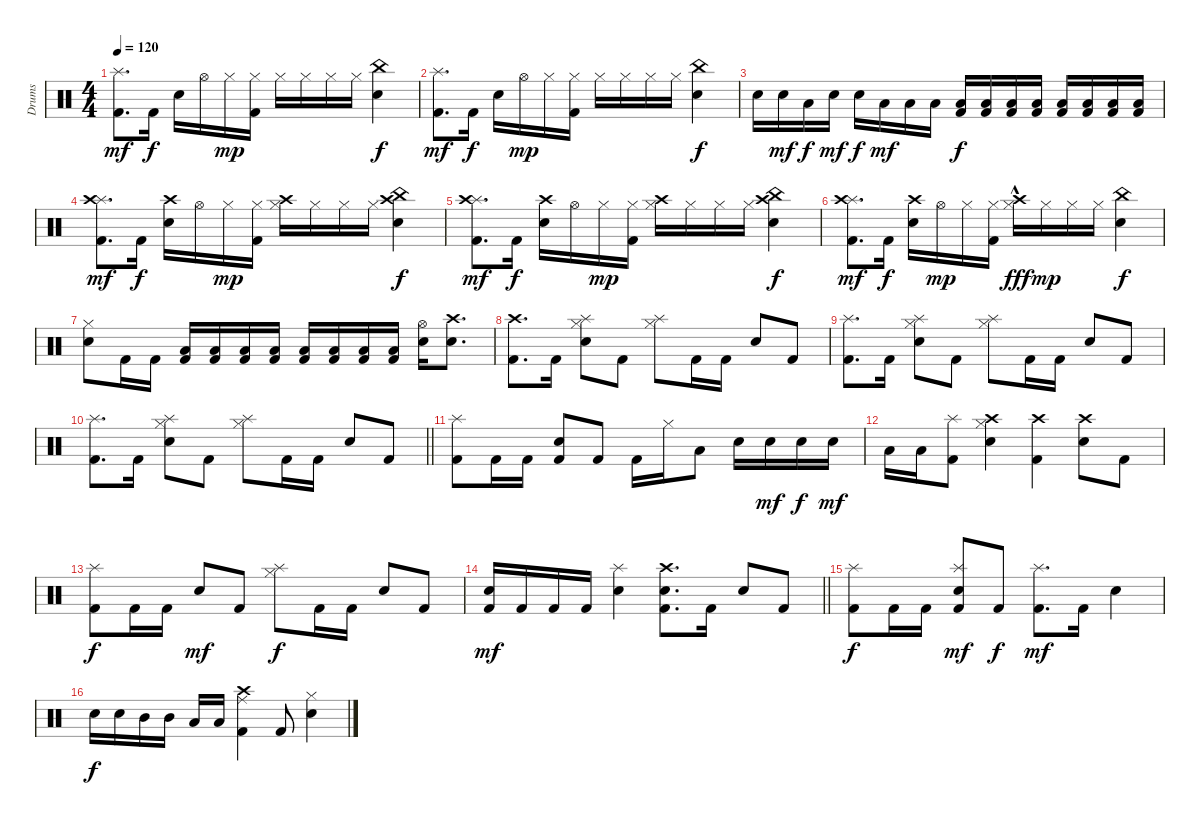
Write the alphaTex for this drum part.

\track ("Drums" "Drums") {instrument percussion}
\staff {score}
\articulation defaults
\ts (4 4)
\tempo 120
\clef neutral
\ks c
("Kick (hit) 2" "Splash (hit)").8{d dy mf} "Kick (hit) 2".16{dy f} "Snare (hit) 2".16 "Hi-Hat (open)".16 "Hi-Hat (closed)".16{dy mp} ("Kick (hit) 2" "Hi-Hat (closed)").16 "Hi-Hat (closed)".16 "Hi-Hat (closed)".16 "Hi-Hat (closed)".16 "Hi-Hat (closed)".16 ("Snare (hit) 2" "China (hit)").4{dy f} |
("Kick (hit) 2" "Splash (hit)").8{d dy mf} "Kick (hit) 2".16{dy f} "Snare (hit) 2".16 "Hi-Hat (open)".16{dy mp} "Hi-Hat (closed)".16 ("Kick (hit) 2" "Hi-Hat (closed)").16 "Hi-Hat (closed)".16 "Hi-Hat (closed)".16 "Hi-Hat (closed)".16 "Hi-Hat (closed)".16 ("Snare (hit) 2" "China (hit)").4{dy f} |
"Snare (hit) 2".16 "Snare (hit) 2".16{dy mf} "Low Tom (hit)".16{dy f} "Snare (hit) 2".16{dy mf} "Snare (hit) 2".16{dy f} "Low Tom (hit)".16{dy mf} "Low Tom (hit)".16 "Low Tom (hit)".16 ("Kick (hit) 2" "Low Tom (hit)").16{dy f} ("Kick (hit) 2" "Low Tom (hit)").16 ("Kick (hit) 2" "Low Tom (hit)").16 ("Kick (hit) 2" "Low Tom (hit)").16 ("Kick (hit) 2" "Low Tom (hit)").16 ("Kick (hit) 2" "Low Tom (hit)").16 ("Kick (hit) 2" "Low Tom (hit)").16 ("Kick (hit) 2" "Low Tom (hit)").16 |
("Kick (hit) 2" "Splash (hit)" "Crash high (hit)").8{d dy mf} "Kick (hit) 2".16{dy f} ("Snare (hit) 2" "Crash high (hit)").16 "Hi-Hat (open)".16 "Hi-Hat (closed)".16{dy mp} ("Kick (hit) 2" "Hi-Hat (closed)").16 ("Hi-Hat (closed)" "Crash high (hit)").16 "Hi-Hat (closed)".16 "Hi-Hat (closed)".16 "Hi-Hat (closed)".16 ("Snare (hit) 2" "China (hit)" "Crash high (hit)").4{dy f} |
("Kick (hit) 2" "Splash (hit)" "Crash high (hit)").8{d dy mf} "Kick (hit) 2".16{dy f} ("Snare (hit) 2" "Crash high (hit)").16 "Hi-Hat (open)".16 "Hi-Hat (closed)".16{dy mp} ("Kick (hit) 2" "Hi-Hat (closed)").16 ("Hi-Hat (closed)" "Crash high (hit)").16 "Hi-Hat (closed)".16 "Hi-Hat (closed)".16 "Hi-Hat (closed)".16 ("Snare (hit) 2" "China (hit)" "Crash high (hit)").4{dy f} |
("Kick (hit) 2" "Splash (hit)" "Crash high (hit)").8{d dy mf} "Kick (hit) 2".16{dy f} ("Snare (hit) 2" "Crash high (hit)").16 "Hi-Hat (open)".16{dy mp} "Hi-Hat (closed)".16 ("Kick (hit) 2" "Hi-Hat (closed)").16 ("Hi-Hat (closed)" "Crash high (hit)"{hac}).16{dy fff} "Hi-Hat (closed)".16{dy mp} "Hi-Hat (closed)".16 "Hi-Hat (closed)".16 ("Snare (hit) 2" "China (hit)").4{dy f} |
("Snare (hit) 2" "Hi-Hat (closed)").8 "Kick (hit) 2".16 "Kick (hit) 2".16 ("Low Tom (hit)" "Kick (hit) 2").16 ("Low Tom (hit)" "Kick (hit) 2").16 ("Low Tom (hit)" "Kick (hit) 2").16 ("Low Tom (hit)" "Kick (hit) 2").16 ("Low Tom (hit)" "Kick (hit) 2").16 ("Low Tom (hit)" "Kick (hit) 2").16 ("Low Tom (hit)" "Kick (hit) 2").16 ("Low Tom (hit)" "Kick (hit) 2").16 ("Snare (hit) 2" "Hi-Hat (open)").16 ("Snare (hit) 2" "Crash high (hit)").8{d} |
("Kick (hit) 2" "Crash high (hit)").8{d} "Kick (hit) 2".16 ("Hi-Hat (closed)" "Snare (hit) 2" "Splash (hit)").8 "Kick (hit) 2".8 ("Hi-Hat (closed)" "Splash (hit)").8 "Kick (hit) 2".16 "Kick (hit) 2".16 "Snare (hit) 2".8 "Kick (hit) 2".8 |
("Splash (hit)" "Kick (hit) 2").8{d} "Kick (hit) 2".16 ("Hi-Hat (closed)" "Snare (hit) 2" "Splash (hit)").8 "Kick (hit) 2".8 ("Hi-Hat (closed)" "Splash (hit)").8 "Kick (hit) 2".16 "Kick (hit) 2".16 "Snare (hit) 2".8 "Kick (hit) 2".8 |
\barLineRight lightlight
("Splash (hit)" "Kick (hit) 2").8{d} "Kick (hit) 2".16 ("Hi-Hat (closed)" "Snare (hit) 2" "Splash (hit)").8 "Kick (hit) 2".8 ("Hi-Hat (closed)" "Splash (hit)").8 "Kick (hit) 2".16 "Kick (hit) 2".16 "Snare (hit) 2".8 "Kick (hit) 2".8 |
("Splash (hit)" "Kick (hit) 2").8 "Kick (hit) 2".16 "Kick (hit) 2".16 ("Snare (hit) 2" "Kick (hit) 2").8 "Kick (hit) 2".8 "Kick (hit) 2".16 "Hi-Hat (closed)".16 "Low Tom (hit)".8 "Snare (hit) 2".16 "Snare (hit) 2".16{dy mf} "Snare (hit) 2".16{dy f} "Snare (hit) 2".16{dy mf} |
"Low Tom (hit)".16 "Low Tom (hit)".16 ("Splash (hit)" "Kick (hit) 2").8 ("Crash high (hit)" "Hi-Hat (closed)" "Snare (hit) 2").4 ("Crash high (hit)" "Kick (hit) 2").4 ("Crash high (hit)" "Snare (hit) 2").8 "Kick (hit) 2".8 |
("Splash (hit)" "Kick (hit) 2").8{dy f} "Kick (hit) 2".16 "Kick (hit) 2".16 "Snare (hit) 2".8{dy mf} "Kick (hit) 2".8 ("Hi-Hat (closed)" "Splash (hit)").8{dy f} "Kick (hit) 2".16 "Kick (hit) 2".16 "Snare (hit) 2".8 "Kick (hit) 2".8 |
\barLineRight lightlight
("Snare (hit) 2" "Kick (hit) 2").16{dy mf} "Kick (hit) 2".16 "Kick (hit) 2".16 "Kick (hit) 2".16 ("Splash (hit)" "Snare (hit) 2").4 ("Crash high (hit)" "Snare (hit) 2" "Kick (hit) 2").8{d} "Kick (hit) 2".16 "Snare (hit) 2".8 "Kick (hit) 2".8 |
("Splash (hit)" "Kick (hit) 2").8{dy f} "Kick (hit) 2".16 "Kick (hit) 2".16 ("Splash (hit)" "Snare (hit) 2" "Kick (hit) 2").8{dy mf} "Kick (hit) 2".8{dy f} ("Splash (hit)" "Kick (hit) 2").8{d dy mf} "Kick (hit) 2".16 "Snare (hit) 2".4 |
"Snare (hit) 2".16{dy f} "Snare (hit) 2".16 "Mid Tom (hit)".16 "Mid Tom (hit)".16 "Low Tom (hit)".16 "Low Tom (hit)".16 ("Kick (hit) 2" "Crash high (hit)" "Ride (middle)").4 "Kick (hit) 2".8 ("Hi-Hat (closed)" "Snare (hit) 2").4
